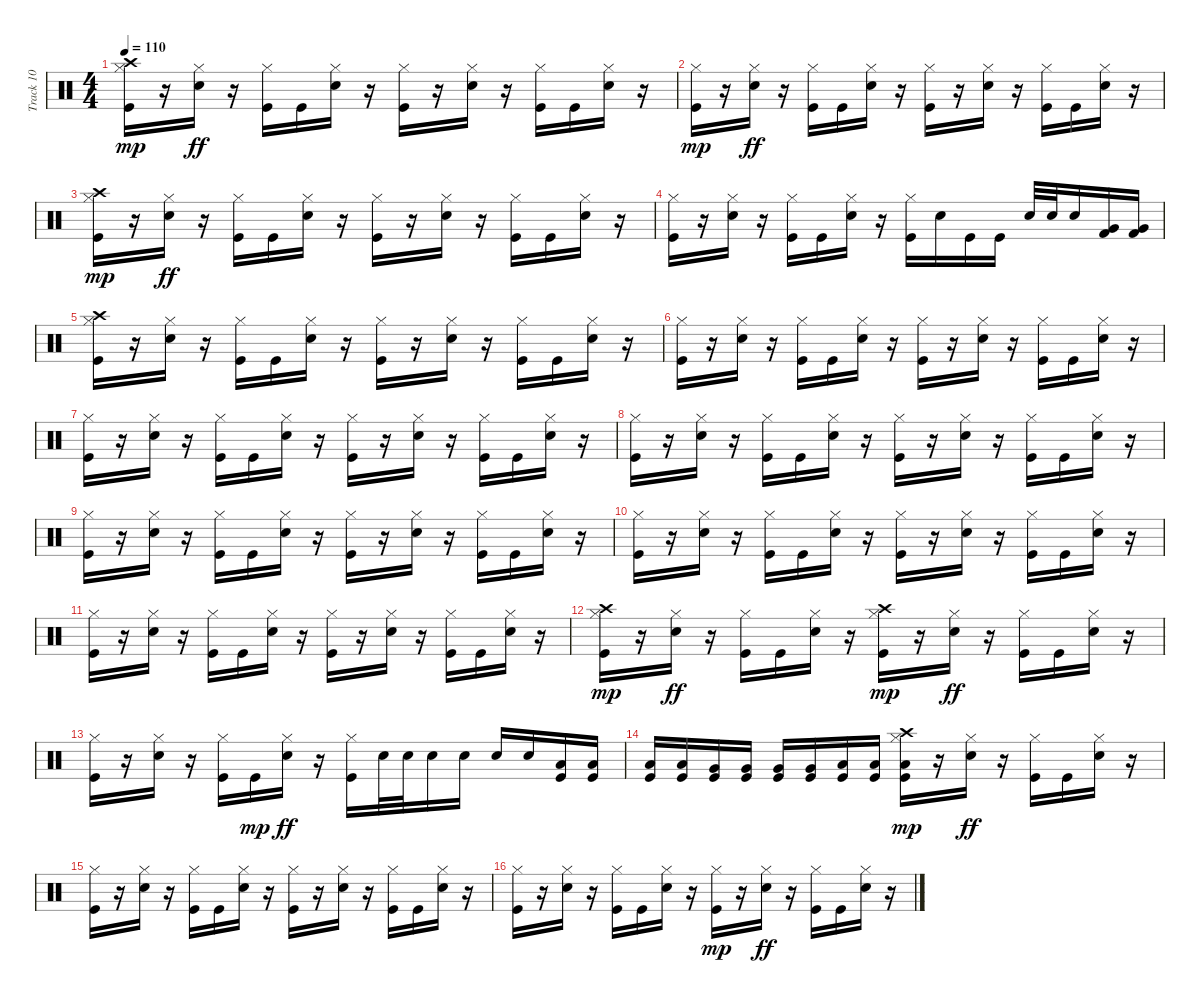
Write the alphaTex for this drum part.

\track ("Track 10" "Track 10") {instrument percussion}
\staff {score}
\articulation defaults
\ts (4 4)
\tempo 110
\clef neutral
\ks c
("Kick (hit)" "Hi-Hat (closed)" "Crash high (hit)").16{dy mp} r.16 ("Electric Snare (hit)" "Hi-Hat (closed)").16{dy ff} r.16 ("Kick (hit)" "Hi-Hat (closed)").16 "Kick (hit)".16 ("Electric Snare (hit)" "Hi-Hat (closed)").16 r.16 ("Kick (hit)" "Hi-Hat (closed)").16 r.16 ("Electric Snare (hit)" "Hi-Hat (closed)").16 r.16 ("Kick (hit)" "Hi-Hat (closed)").16 "Kick (hit)".16 ("Electric Snare (hit)" "Hi-Hat (closed)").16 r.16 |
("Kick (hit)" "Hi-Hat (closed)").16{dy mp} r.16 ("Electric Snare (hit)" "Hi-Hat (closed)").16{dy ff} r.16 ("Kick (hit)" "Hi-Hat (closed)").16 "Kick (hit)".16 ("Electric Snare (hit)" "Hi-Hat (closed)").16 r.16 ("Kick (hit)" "Hi-Hat (closed)").16 r.16 ("Electric Snare (hit)" "Hi-Hat (closed)").16 r.16 ("Kick (hit)" "Hi-Hat (closed)").16 "Kick (hit)".16 ("Electric Snare (hit)" "Hi-Hat (closed)").16 r.16 |
("Kick (hit)" "Hi-Hat (closed)" "Crash high (hit)").16{dy mp} r.16 ("Electric Snare (hit)" "Hi-Hat (closed)").16{dy ff} r.16 ("Kick (hit)" "Hi-Hat (closed)").16 "Kick (hit)".16 ("Electric Snare (hit)" "Hi-Hat (closed)").16 r.16 ("Kick (hit)" "Hi-Hat (closed)").16 r.16 ("Electric Snare (hit)" "Hi-Hat (closed)").16 r.16 ("Kick (hit)" "Hi-Hat (closed)").16 "Kick (hit)".16 ("Electric Snare (hit)" "Hi-Hat (closed)").16 r.16 |
("Kick (hit)" "Hi-Hat (closed)").16 r.16 ("Electric Snare (hit)" "Hi-Hat (closed)").16 r.16 ("Kick (hit)" "Hi-Hat (closed)").16 "Kick (hit)".16 ("Electric Snare (hit)" "Hi-Hat (closed)").16 r.16 ("Kick (hit)" "Hi-Hat (closed)").16 "Electric Snare (hit)".16 "Kick (hit)".16 "Kick (hit)".16 "Electric Snare (hit)".32 "Electric Snare (hit)".32 "Electric Snare (hit)".16 ("Very Low Tom (hit)" "Kick (hit) 2").16 ("Very Low Tom (hit)" "Kick (hit) 2").16 |
("Kick (hit)" "Hi-Hat (closed)" "Crash high (hit)").16 r.16 ("Electric Snare (hit)" "Hi-Hat (closed)").16 r.16 ("Kick (hit)" "Hi-Hat (closed)").16 "Kick (hit)".16 ("Electric Snare (hit)" "Hi-Hat (closed)").16 r.16 ("Kick (hit)" "Hi-Hat (closed)").16 r.16 ("Electric Snare (hit)" "Hi-Hat (closed)").16 r.16 ("Kick (hit)" "Hi-Hat (closed)").16 "Kick (hit)".16 ("Electric Snare (hit)" "Hi-Hat (closed)").16 r.16 |
("Kick (hit)" "Hi-Hat (closed)").16 r.16 ("Electric Snare (hit)" "Hi-Hat (closed)").16 r.16 ("Kick (hit)" "Hi-Hat (closed)").16 "Kick (hit)".16 ("Electric Snare (hit)" "Hi-Hat (closed)").16 r.16 ("Kick (hit)" "Hi-Hat (closed)").16 r.16 ("Electric Snare (hit)" "Hi-Hat (closed)").16 r.16 ("Kick (hit)" "Hi-Hat (closed)").16 "Kick (hit)".16 ("Electric Snare (hit)" "Hi-Hat (closed)").16 r.16 |
("Kick (hit)" "Hi-Hat (closed)").16 r.16 ("Electric Snare (hit)" "Hi-Hat (closed)").16 r.16 ("Kick (hit)" "Hi-Hat (closed)").16 "Kick (hit)".16 ("Electric Snare (hit)" "Hi-Hat (closed)").16 r.16 ("Kick (hit)" "Hi-Hat (closed)").16 r.16 ("Electric Snare (hit)" "Hi-Hat (closed)").16 r.16 ("Kick (hit)" "Hi-Hat (closed)").16 "Kick (hit)".16 ("Electric Snare (hit)" "Hi-Hat (closed)").16 r.16 |
("Kick (hit)" "Hi-Hat (closed)").16 r.16 ("Electric Snare (hit)" "Hi-Hat (closed)").16 r.16 ("Kick (hit)" "Hi-Hat (closed)").16 "Kick (hit)".16 ("Electric Snare (hit)" "Hi-Hat (closed)").16 r.16 ("Kick (hit)" "Hi-Hat (closed)").16 r.16 ("Electric Snare (hit)" "Hi-Hat (closed)").16 r.16 ("Kick (hit)" "Hi-Hat (closed)").16 "Kick (hit)".16 ("Electric Snare (hit)" "Hi-Hat (closed)").16 r.16 |
("Kick (hit)" "Hi-Hat (closed)").16 r.16 ("Electric Snare (hit)" "Hi-Hat (closed)").16 r.16 ("Kick (hit)" "Hi-Hat (closed)").16 "Kick (hit)".16 ("Electric Snare (hit)" "Hi-Hat (closed)").16 r.16 ("Kick (hit)" "Hi-Hat (closed)").16 r.16 ("Electric Snare (hit)" "Hi-Hat (closed)").16 r.16 ("Kick (hit)" "Hi-Hat (closed)").16 "Kick (hit)".16 ("Electric Snare (hit)" "Hi-Hat (closed)").16 r.16 |
("Kick (hit)" "Hi-Hat (closed)").16 r.16 ("Electric Snare (hit)" "Hi-Hat (closed)").16 r.16 ("Kick (hit)" "Hi-Hat (closed)").16 "Kick (hit)".16 ("Electric Snare (hit)" "Hi-Hat (closed)").16 r.16 ("Kick (hit)" "Hi-Hat (closed)").16 r.16 ("Electric Snare (hit)" "Hi-Hat (closed)").16 r.16 ("Kick (hit)" "Hi-Hat (closed)").16 "Kick (hit)".16 ("Electric Snare (hit)" "Hi-Hat (closed)").16 r.16 |
("Kick (hit)" "Hi-Hat (closed)").16 r.16 ("Electric Snare (hit)" "Hi-Hat (closed)").16 r.16 ("Kick (hit)" "Hi-Hat (closed)").16 "Kick (hit)".16 ("Electric Snare (hit)" "Hi-Hat (closed)").16 r.16 ("Kick (hit)" "Hi-Hat (closed)").16 r.16 ("Electric Snare (hit)" "Hi-Hat (closed)").16 r.16 ("Kick (hit)" "Hi-Hat (closed)").16 "Kick (hit)".16 ("Electric Snare (hit)" "Hi-Hat (closed)").16 r.16 |
("Kick (hit)" "Hi-Hat (closed)" "Crash high (hit)").16{dy mp} r.16 ("Electric Snare (hit)" "Hi-Hat (closed)").16{dy ff} r.16 ("Kick (hit)" "Hi-Hat (closed)").16 "Kick (hit)".16 ("Electric Snare (hit)" "Hi-Hat (closed)").16 r.16 ("Kick (hit)" "Hi-Hat (closed)" "Crash high (hit)").16{dy mp} r.16 ("Electric Snare (hit)" "Hi-Hat (closed)").16{dy ff} r.16 ("Kick (hit)" "Hi-Hat (closed)").16 "Kick (hit)".16 ("Electric Snare (hit)" "Hi-Hat (closed)").16 r.16 |
("Kick (hit)" "Hi-Hat (closed)").16 r.16 ("Electric Snare (hit)" "Hi-Hat (closed)").16 r.16 ("Kick (hit)" "Hi-Hat (closed)").16 "Kick (hit)".16{dy mp} ("Electric Snare (hit)" "Hi-Hat (closed)").16{dy ff} r.16 ("Kick (hit)" "Hi-Hat (closed)").16 "Electric Snare (hit)".32 "Electric Snare (hit)".32 "Electric Snare (hit)".16 "Electric Snare (hit)".16 "Electric Snare (hit)".16 "Electric Snare (hit)".16 ("Low Tom (hit)" "Kick (hit)").16 ("Low Tom (hit)" "Kick (hit)").16 |
("Low Tom (hit)" "Kick (hit)").16 ("Low Tom (hit)" "Kick (hit)").16 ("Very Low Tom (hit)" "Kick (hit)").16 ("Very Low Tom (hit)" "Kick (hit)").16 ("Very Low Tom (hit)" "Kick (hit)").16 ("Very Low Tom (hit)" "Kick (hit)").16 ("Low Floor Tom (hit)" "Kick (hit)").16 ("Low Floor Tom (hit)" "Kick (hit)").16 ("Kick (hit)" "Crash high (hit)" "Low Floor Tom (hit)" "Hi-Hat (closed)").16{dy mp} r.16 ("Electric Snare (hit)" "Hi-Hat (closed)").16{dy ff} r.16 ("Kick (hit)" "Hi-Hat (closed)").16 "Kick (hit)".16 ("Electric Snare (hit)" "Hi-Hat (closed)").16 r.16 |
("Kick (hit)" "Hi-Hat (closed)").16 r.16 ("Electric Snare (hit)" "Hi-Hat (closed)").16 r.16 ("Kick (hit)" "Hi-Hat (closed)").16 "Kick (hit)".16 ("Electric Snare (hit)" "Hi-Hat (closed)").16 r.16 ("Kick (hit)" "Hi-Hat (closed)").16 r.16 ("Electric Snare (hit)" "Hi-Hat (closed)").16 r.16 ("Hi-Hat (closed)" "Kick (hit)").16 "Kick (hit)".16 ("Electric Snare (hit)" "Hi-Hat (closed)").16 r.16 |
("Hi-Hat (closed)" "Kick (hit)").16 r.16 ("Electric Snare (hit)" "Hi-Hat (closed)").16 r.16 ("Kick (hit)" "Hi-Hat (closed)").16 "Kick (hit)".16 ("Electric Snare (hit)" "Hi-Hat (closed)").16 r.16 ("Kick (hit)" "Hi-Hat (closed)").16{dy mp} r.16 ("Electric Snare (hit)" "Hi-Hat (closed)").16{dy ff} r.16 ("Kick (hit)" "Hi-Hat (closed)").16 "Kick (hit)".16 ("Electric Snare (hit)" "Hi-Hat (closed)").16 r.16
